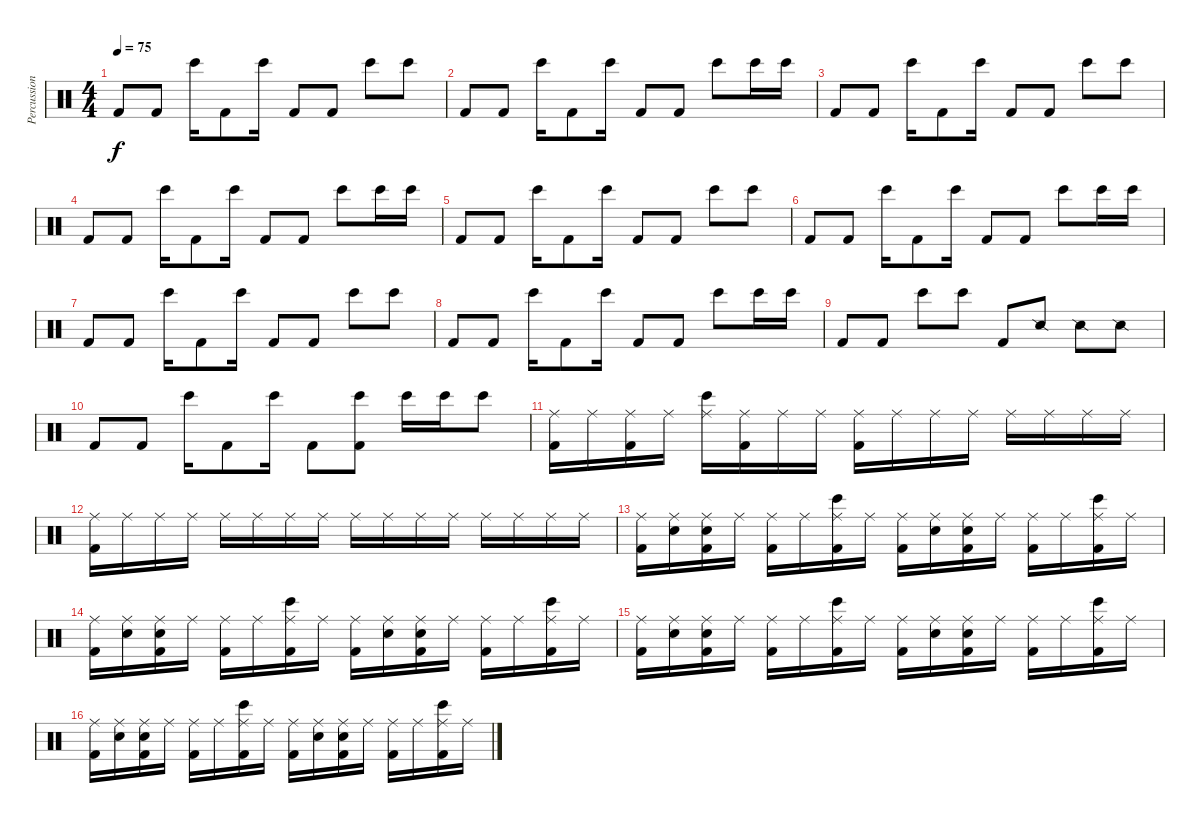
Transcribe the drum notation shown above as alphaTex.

\track ("Percussion" "Percussion") {instrument percussion}
\staff {score}
\articulation defaults
\ts (4 4)
\tempo 75
\clef neutral
\ks c "Kick (hit) 2".8{dy f} "Kick (hit) 2".8 "Bongo High (hit)".16 "Kick (hit) 2".8 "Bongo High (hit)".16 "Kick (hit) 2".8 "Kick (hit) 2".8 "Bongo High (hit)".8 "Bongo High (hit)".8
|
"Kick (hit) 2".8 "Kick (hit) 2".8 "Bongo High (hit)".16 "Kick (hit) 2".8 "Bongo High (hit)".16 "Kick (hit) 2".8 "Kick (hit) 2".8 "Bongo High (hit)".8 "Bongo High (hit)".16 "Bongo High (hit)".16 |
"Kick (hit) 2".8 "Kick (hit) 2".8 "Bongo High (hit)".16 "Kick (hit) 2".8 "Bongo High (hit)".16 "Kick (hit) 2".8 "Kick (hit) 2".8 "Bongo High (hit)".8 "Bongo High (hit)".8 |
"Kick (hit) 2".8 "Kick (hit) 2".8 "Bongo High (hit)".16 "Kick (hit) 2".8 "Bongo High (hit)".16 "Kick (hit) 2".8 "Kick (hit) 2".8 "Bongo High (hit)".8 "Bongo High (hit)".16 "Bongo High (hit)".16 |
"Kick (hit) 2".8 "Kick (hit) 2".8 "Bongo High (hit)".16 "Kick (hit) 2".8 "Bongo High (hit)".16 "Kick (hit) 2".8 "Kick (hit) 2".8 "Bongo High (hit)".8 "Bongo High (hit)".8 |
"Kick (hit) 2".8 "Kick (hit) 2".8 "Bongo High (hit)".16 "Kick (hit) 2".8 "Bongo High (hit)".16 "Kick (hit) 2".8 "Kick (hit) 2".8 "Bongo High (hit)".8 "Bongo High (hit)".16 "Bongo High (hit)".16 |
"Kick (hit) 2".8 "Kick (hit) 2".8 "Bongo High (hit)".16 "Kick (hit) 2".8 "Bongo High (hit)".16 "Kick (hit) 2".8 "Kick (hit) 2".8 "Bongo High (hit)".8 "Bongo High (hit)".8 |
"Kick (hit) 2".8 "Kick (hit) 2".8 "Bongo High (hit)".16 "Kick (hit) 2".8 "Bongo High (hit)".16 "Kick (hit) 2".8 "Kick (hit) 2".8 "Bongo High (hit)".8 "Bongo High (hit)".16 "Bongo High (hit)".16 |
"Kick (hit) 2".8 "Kick (hit) 2".8 "Bongo High (hit)".8 "Bongo High (hit)".8 "Kick (hit) 2".8 "Snare (side stick) 2".8 "Snare (side stick) 2".8 "Snare (side stick) 2".8 |
"Kick (hit) 2".8 "Kick (hit) 2".8 "Bongo High (hit)".16 "Kick (hit) 2".8 "Bongo High (hit)".16 "Kick (hit) 2".8 ("Bongo High (hit)" "Kick (hit) 2").8 "Bongo High (hit)".16 "Bongo High (hit)".16 "Bongo High (hit)".8 |
("Ride (middle)" "Kick (hit) 2").16 "Ride (middle)".16 ("Ride (middle)" "Kick (hit) 2").16 "Ride (middle)".16 ("Ride (middle)" "Bongo High (hit)").16 ("Ride (middle)" "Kick (hit) 2").16 "Ride (middle)".16 "Ride (middle)".16 ("Ride (middle)" "Kick (hit) 2").16 "Ride (middle)".16 "Ride (middle)".16 "Ride (middle)".16 "Ride (middle)".16 "Ride (middle)".16 "Ride (middle)".16 "Ride (middle)".16 |
("Ride (middle)" "Kick (hit) 2").16 "Ride (middle)".16 "Ride (middle)".16 "Ride (middle)".16 "Ride (middle)".16 "Ride (middle)".16 "Ride (middle)".16 "Ride (middle)".16 "Ride (middle)".16 "Ride (middle)".16 "Ride (middle)".16 "Ride (middle)".16 "Ride (middle)".16 "Ride (middle)".16 "Ride (middle)".16 "Ride (middle)".16 |
("Ride (middle)" "Kick (hit) 2").16 ("Ride (middle)" "Snare (hit) 2").16 ("Ride (middle)" "Snare (hit) 2" "Kick (hit) 2").16 "Ride (middle)".16 ("Ride (middle)" "Kick (hit) 2").16 "Ride (middle)".16 ("Ride (middle)" "Bongo High (hit)" "Kick (hit) 2").16 "Ride (middle)".16 ("Ride (middle)" "Kick (hit) 2").16 ("Ride (middle)" "Snare (hit) 2").16 ("Ride (middle)" "Snare (hit) 2" "Kick (hit) 2").16 "Ride (middle)".16 ("Ride (middle)" "Kick (hit) 2").16 "Ride (middle)".16 ("Ride (middle)" "Bongo High (hit)" "Kick (hit) 2").16 "Ride (middle)".16 |
("Ride (middle)" "Kick (hit) 2").16 ("Ride (middle)" "Snare (hit) 2").16 ("Ride (middle)" "Snare (hit) 2" "Kick (hit) 2").16 "Ride (middle)".16 ("Ride (middle)" "Kick (hit) 2").16 "Ride (middle)".16 ("Ride (middle)" "Bongo High (hit)" "Kick (hit) 2").16 "Ride (middle)".16 ("Ride (middle)" "Kick (hit) 2").16 ("Ride (middle)" "Snare (hit) 2").16 ("Ride (middle)" "Snare (hit) 2" "Kick (hit) 2").16 "Ride (middle)".16 ("Ride (middle)" "Kick (hit) 2").16 "Ride (middle)".16 ("Ride (middle)" "Bongo High (hit)" "Kick (hit) 2").16 "Ride (middle)".16 |
("Ride (middle)" "Kick (hit) 2").16 ("Ride (middle)" "Snare (hit) 2").16 ("Ride (middle)" "Snare (hit) 2" "Kick (hit) 2").16 "Ride (middle)".16 ("Ride (middle)" "Kick (hit) 2").16 "Ride (middle)".16 ("Ride (middle)" "Bongo High (hit)" "Kick (hit) 2").16 "Ride (middle)".16 ("Ride (middle)" "Kick (hit) 2").16 ("Ride (middle)" "Snare (hit) 2").16 ("Ride (middle)" "Snare (hit) 2" "Kick (hit) 2").16 "Ride (middle)".16 ("Ride (middle)" "Kick (hit) 2").16 "Ride (middle)".16 ("Ride (middle)" "Bongo High (hit)" "Kick (hit) 2").16 "Ride (middle)".16 |
("Ride (middle)" "Kick (hit) 2").16 ("Ride (middle)" "Snare (hit) 2").16 ("Ride (middle)" "Snare (hit) 2" "Kick (hit) 2").16 "Ride (middle)".16 ("Ride (middle)" "Kick (hit) 2").16 "Ride (middle)".16 ("Ride (middle)" "Bongo High (hit)" "Kick (hit) 2").16 "Ride (middle)".16 ("Ride (middle)" "Kick (hit) 2").16 ("Ride (middle)" "Snare (hit) 2").16 ("Ride (middle)" "Snare (hit) 2" "Kick (hit) 2").16 "Ride (middle)".16 ("Ride (middle)" "Kick (hit) 2").16 "Ride (middle)".16 ("Ride (middle)" "Bongo High (hit)" "Kick (hit) 2").16 "Ride (middle)".16
